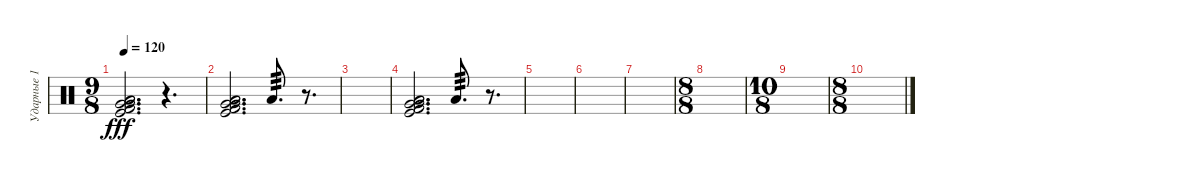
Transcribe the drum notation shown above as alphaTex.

\track ("Ударные 1" "Ударные 1") {instrument percussion}
\staff {score}
\articulation defaults
\ts (9 8)
\tempo 120
\clef neutral
\ks c
("Very Low Tom (hit)" "Low Floor Tom (hit)" "Kick (hit)" "Kick (hit) 2" "Very Low Tom (hit)" "Low Floor Tom (hit)").2{d dy fff} r.4{d} |
("Very Low Tom (hit)" "Low Floor Tom (hit)" "Kick (hit)" "Kick (hit) 2" "Very Low Tom (hit)" "Low Floor Tom (hit)").2{d} "Low Floor Tom (hit)".8{d tp 3} r.8{d} |
|
("Very Low Tom (hit)" "Low Floor Tom (hit)" "Kick (hit)" "Kick (hit) 2" "Very Low Tom (hit)" "Low Floor Tom (hit)").2{d} "Low Floor Tom (hit)".8{d tp 3} r.8{d} |
|
|
|
\ts (8 8)
|
\ts (10 8)
|
\ts (8 8)
